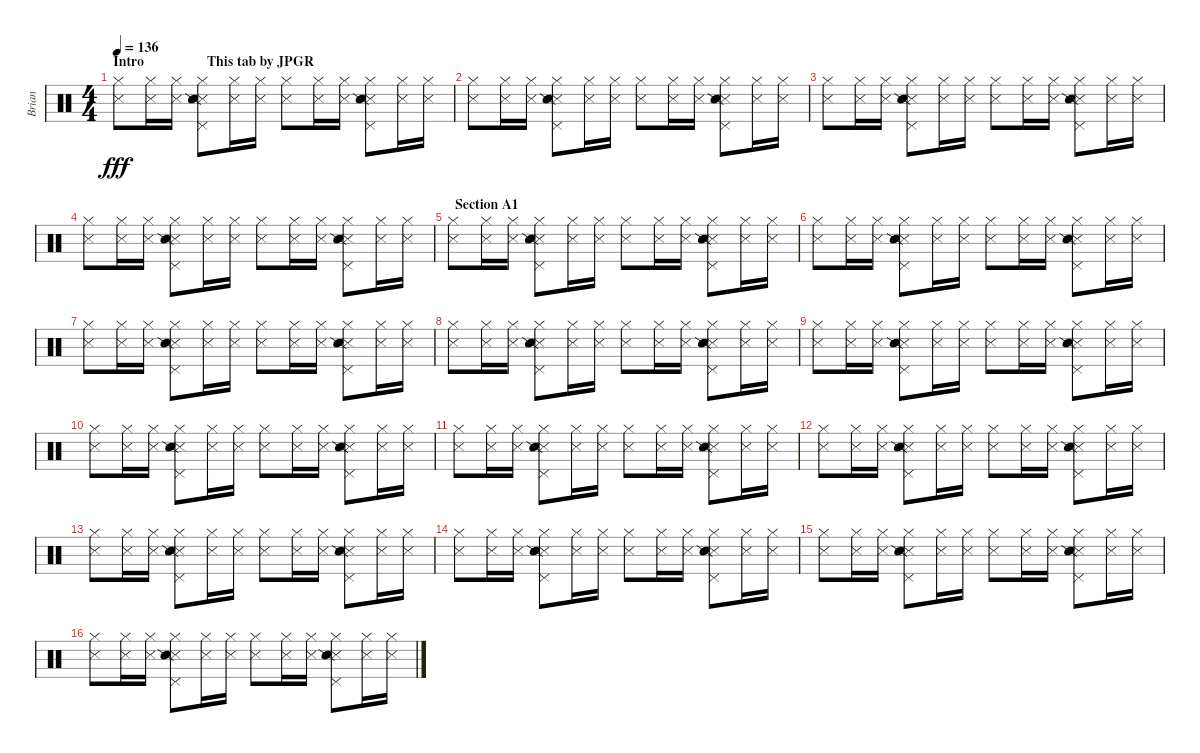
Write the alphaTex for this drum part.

\track ("Brian" "Brian") {instrument percussion}
\staff {score}
\articulation defaults
\ts (4 4)
\section ("" "Intro                  This tab by JPGR")
\tempo 136
\clef neutral
\ks c
("Hi-Hat (closed)" "Metronome (hit)").8{dy fff} ("Hi-Hat (closed)" "Metronome (hit)").16 ("Hi-Hat (closed)" "Metronome (hit)").16 ("Pedal Hi-Hat (hit)" "Snare (side stick) 3" "Hi-Hat (closed)" "Snare (side stick) 2").8 ("Hi-Hat (closed)" "Metronome (hit)").16 ("Hi-Hat (closed)" "Metronome (hit)").16 ("Hi-Hat (closed)" "Metronome (hit)").8 ("Hi-Hat (closed)" "Metronome (hit)").16 ("Hi-Hat (closed)" "Metronome (hit)").16 ("Pedal Hi-Hat (hit)" "Snare (side stick) 3" "Hi-Hat (closed)" "Snare (side stick) 2").8 ("Hi-Hat (closed)" "Metronome (hit)").16 ("Hi-Hat (closed)" "Metronome (hit)").16 |
("Hi-Hat (closed)" "Metronome (hit)").8 ("Hi-Hat (closed)" "Metronome (hit)").16 ("Hi-Hat (closed)" "Metronome (hit)").16 ("Pedal Hi-Hat (hit)" "Snare (side stick) 3" "Hi-Hat (closed)" "Snare (side stick) 2").8 ("Hi-Hat (closed)" "Metronome (hit)").16 ("Hi-Hat (closed)" "Metronome (hit)").16 ("Hi-Hat (closed)" "Metronome (hit)").8 ("Hi-Hat (closed)" "Metronome (hit)").16 ("Hi-Hat (closed)" "Metronome (hit)").16 ("Pedal Hi-Hat (hit)" "Snare (side stick) 3" "Hi-Hat (closed)" "Snare (side stick) 2").8 ("Hi-Hat (closed)" "Metronome (hit)").16 ("Hi-Hat (closed)" "Metronome (hit)").16 |
("Hi-Hat (closed)" "Metronome (hit)").8 ("Hi-Hat (closed)" "Metronome (hit)").16 ("Hi-Hat (closed)" "Metronome (hit)").16 ("Pedal Hi-Hat (hit)" "Snare (side stick) 3" "Hi-Hat (closed)" "Snare (side stick) 2").8 ("Hi-Hat (closed)" "Metronome (hit)").16 ("Hi-Hat (closed)" "Metronome (hit)").16 ("Hi-Hat (closed)" "Metronome (hit)").8 ("Hi-Hat (closed)" "Metronome (hit)").16 ("Hi-Hat (closed)" "Metronome (hit)").16 ("Pedal Hi-Hat (hit)" "Snare (side stick) 3" "Hi-Hat (closed)" "Snare (side stick) 2").8 ("Hi-Hat (closed)" "Metronome (hit)").16 ("Hi-Hat (closed)" "Metronome (hit)").16 |
("Hi-Hat (closed)" "Metronome (hit)").8 ("Hi-Hat (closed)" "Metronome (hit)").16 ("Hi-Hat (closed)" "Metronome (hit)").16 ("Pedal Hi-Hat (hit)" "Snare (side stick) 3" "Hi-Hat (closed)" "Snare (side stick) 2").8 ("Hi-Hat (closed)" "Metronome (hit)").16 ("Hi-Hat (closed)" "Metronome (hit)").16 ("Hi-Hat (closed)" "Metronome (hit)").8 ("Hi-Hat (closed)" "Metronome (hit)").16 ("Hi-Hat (closed)" "Metronome (hit)").16 ("Pedal Hi-Hat (hit)" "Snare (side stick) 3" "Hi-Hat (closed)" "Snare (side stick) 2").8 ("Hi-Hat (closed)" "Metronome (hit)").16 ("Hi-Hat (closed)" "Metronome (hit)").16 |
\section ("" "  Section A1")
("Hi-Hat (closed)" "Metronome (hit)").8 ("Hi-Hat (closed)" "Metronome (hit)").16 ("Hi-Hat (closed)" "Metronome (hit)").16 ("Pedal Hi-Hat (hit)" "Snare (side stick) 3" "Hi-Hat (closed)" "Snare (side stick) 2").8 ("Hi-Hat (closed)" "Metronome (hit)").16 ("Hi-Hat (closed)" "Metronome (hit)").16 ("Hi-Hat (closed)" "Metronome (hit)").8 ("Hi-Hat (closed)" "Metronome (hit)").16 ("Hi-Hat (closed)" "Metronome (hit)").16 ("Pedal Hi-Hat (hit)" "Snare (side stick) 3" "Hi-Hat (closed)" "Snare (side stick) 2").8 ("Hi-Hat (closed)" "Metronome (hit)").16 ("Hi-Hat (closed)" "Metronome (hit)").16 |
("Hi-Hat (closed)" "Metronome (hit)").8 ("Hi-Hat (closed)" "Metronome (hit)").16 ("Hi-Hat (closed)" "Metronome (hit)").16 ("Pedal Hi-Hat (hit)" "Snare (side stick) 3" "Hi-Hat (closed)" "Snare (side stick) 2").8 ("Hi-Hat (closed)" "Metronome (hit)").16 ("Hi-Hat (closed)" "Metronome (hit)").16 ("Hi-Hat (closed)" "Metronome (hit)").8 ("Hi-Hat (closed)" "Metronome (hit)").16 ("Hi-Hat (closed)" "Metronome (hit)").16 ("Pedal Hi-Hat (hit)" "Snare (side stick) 3" "Hi-Hat (closed)" "Snare (side stick) 2").8 ("Hi-Hat (closed)" "Metronome (hit)").16 ("Hi-Hat (closed)" "Metronome (hit)").16 |
("Hi-Hat (closed)" "Metronome (hit)").8 ("Hi-Hat (closed)" "Metronome (hit)").16 ("Hi-Hat (closed)" "Metronome (hit)").16 ("Pedal Hi-Hat (hit)" "Snare (side stick) 3" "Hi-Hat (closed)" "Snare (side stick) 2").8 ("Hi-Hat (closed)" "Metronome (hit)").16 ("Hi-Hat (closed)" "Metronome (hit)").16 ("Hi-Hat (closed)" "Metronome (hit)").8 ("Hi-Hat (closed)" "Metronome (hit)").16 ("Hi-Hat (closed)" "Metronome (hit)").16 ("Pedal Hi-Hat (hit)" "Snare (side stick) 3" "Hi-Hat (closed)" "Snare (side stick) 2").8 ("Hi-Hat (closed)" "Metronome (hit)").16 ("Hi-Hat (closed)" "Metronome (hit)").16 |
("Hi-Hat (closed)" "Metronome (hit)").8 ("Hi-Hat (closed)" "Metronome (hit)").16 ("Hi-Hat (closed)" "Metronome (hit)").16 ("Pedal Hi-Hat (hit)" "Snare (side stick) 3" "Hi-Hat (closed)" "Snare (side stick) 2").8 ("Hi-Hat (closed)" "Metronome (hit)").16 ("Hi-Hat (closed)" "Metronome (hit)").16 ("Hi-Hat (closed)" "Metronome (hit)").8 ("Hi-Hat (closed)" "Metronome (hit)").16 ("Hi-Hat (closed)" "Metronome (hit)").16 ("Pedal Hi-Hat (hit)" "Snare (side stick) 3" "Hi-Hat (closed)" "Snare (side stick) 2").8 ("Hi-Hat (closed)" "Metronome (hit)").16 ("Hi-Hat (closed)" "Metronome (hit)").16 |
("Hi-Hat (closed)" "Metronome (hit)").8 ("Hi-Hat (closed)" "Metronome (hit)").16 ("Hi-Hat (closed)" "Metronome (hit)").16 ("Pedal Hi-Hat (hit)" "Snare (side stick) 3" "Hi-Hat (closed)" "Snare (side stick) 2").8 ("Hi-Hat (closed)" "Metronome (hit)").16 ("Hi-Hat (closed)" "Metronome (hit)").16 ("Hi-Hat (closed)" "Metronome (hit)").8 ("Hi-Hat (closed)" "Metronome (hit)").16 ("Hi-Hat (closed)" "Metronome (hit)").16 ("Pedal Hi-Hat (hit)" "Snare (side stick) 3" "Hi-Hat (closed)" "Snare (side stick) 2").8 ("Hi-Hat (closed)" "Metronome (hit)").16 ("Hi-Hat (closed)" "Metronome (hit)").16 |
("Hi-Hat (closed)" "Metronome (hit)").8 ("Hi-Hat (closed)" "Metronome (hit)").16 ("Hi-Hat (closed)" "Metronome (hit)").16 ("Pedal Hi-Hat (hit)" "Snare (side stick) 3" "Hi-Hat (closed)" "Snare (side stick) 2").8 ("Hi-Hat (closed)" "Metronome (hit)").16 ("Hi-Hat (closed)" "Metronome (hit)").16 ("Hi-Hat (closed)" "Metronome (hit)").8 ("Hi-Hat (closed)" "Metronome (hit)").16 ("Hi-Hat (closed)" "Metronome (hit)").16 ("Pedal Hi-Hat (hit)" "Snare (side stick) 3" "Hi-Hat (closed)" "Snare (side stick) 2").8 ("Hi-Hat (closed)" "Metronome (hit)").16 ("Hi-Hat (closed)" "Metronome (hit)").16 |
("Hi-Hat (closed)" "Metronome (hit)").8 ("Hi-Hat (closed)" "Metronome (hit)").16 ("Hi-Hat (closed)" "Metronome (hit)").16 ("Pedal Hi-Hat (hit)" "Snare (side stick) 3" "Hi-Hat (closed)" "Snare (side stick) 2").8 ("Hi-Hat (closed)" "Metronome (hit)").16 ("Hi-Hat (closed)" "Metronome (hit)").16 ("Hi-Hat (closed)" "Metronome (hit)").8 ("Hi-Hat (closed)" "Metronome (hit)").16 ("Hi-Hat (closed)" "Metronome (hit)").16 ("Pedal Hi-Hat (hit)" "Snare (side stick) 3" "Hi-Hat (closed)" "Snare (side stick) 2").8 ("Hi-Hat (closed)" "Metronome (hit)").16 ("Hi-Hat (closed)" "Metronome (hit)").16 |
("Hi-Hat (closed)" "Metronome (hit)").8 ("Hi-Hat (closed)" "Metronome (hit)").16 ("Hi-Hat (closed)" "Metronome (hit)").16 ("Pedal Hi-Hat (hit)" "Snare (side stick) 3" "Hi-Hat (closed)" "Snare (side stick) 2").8 ("Hi-Hat (closed)" "Metronome (hit)").16 ("Hi-Hat (closed)" "Metronome (hit)").16 ("Hi-Hat (closed)" "Metronome (hit)").8 ("Hi-Hat (closed)" "Metronome (hit)").16 ("Hi-Hat (closed)" "Metronome (hit)").16 ("Pedal Hi-Hat (hit)" "Snare (side stick) 3" "Hi-Hat (closed)" "Snare (side stick) 2").8 ("Hi-Hat (closed)" "Metronome (hit)").16 ("Hi-Hat (closed)" "Metronome (hit)").16 |
("Hi-Hat (closed)" "Metronome (hit)").8 ("Hi-Hat (closed)" "Metronome (hit)").16 ("Hi-Hat (closed)" "Metronome (hit)").16 ("Pedal Hi-Hat (hit)" "Snare (side stick) 3" "Hi-Hat (closed)" "Snare (side stick) 2").8 ("Hi-Hat (closed)" "Metronome (hit)").16 ("Hi-Hat (closed)" "Metronome (hit)").16 ("Hi-Hat (closed)" "Metronome (hit)").8 ("Hi-Hat (closed)" "Metronome (hit)").16 ("Hi-Hat (closed)" "Metronome (hit)").16 ("Pedal Hi-Hat (hit)" "Snare (side stick) 3" "Hi-Hat (closed)" "Snare (side stick) 2").8 ("Hi-Hat (closed)" "Metronome (hit)").16 ("Hi-Hat (closed)" "Metronome (hit)").16 |
("Hi-Hat (closed)" "Metronome (hit)").8 ("Hi-Hat (closed)" "Metronome (hit)").16 ("Hi-Hat (closed)" "Metronome (hit)").16 ("Pedal Hi-Hat (hit)" "Snare (side stick) 3" "Hi-Hat (closed)" "Snare (side stick) 2").8 ("Hi-Hat (closed)" "Metronome (hit)").16 ("Hi-Hat (closed)" "Metronome (hit)").16 ("Hi-Hat (closed)" "Metronome (hit)").8 ("Hi-Hat (closed)" "Metronome (hit)").16 ("Hi-Hat (closed)" "Metronome (hit)").16 ("Pedal Hi-Hat (hit)" "Snare (side stick) 3" "Hi-Hat (closed)" "Snare (side stick) 2").8 ("Hi-Hat (closed)" "Metronome (hit)").16 ("Hi-Hat (closed)" "Metronome (hit)").16 |
("Hi-Hat (closed)" "Metronome (hit)").8 ("Hi-Hat (closed)" "Metronome (hit)").16 ("Hi-Hat (closed)" "Metronome (hit)").16 ("Pedal Hi-Hat (hit)" "Snare (side stick) 3" "Hi-Hat (closed)" "Snare (side stick) 2").8 ("Hi-Hat (closed)" "Metronome (hit)").16 ("Hi-Hat (closed)" "Metronome (hit)").16 ("Hi-Hat (closed)" "Metronome (hit)").8 ("Hi-Hat (closed)" "Metronome (hit)").16 ("Hi-Hat (closed)" "Metronome (hit)").16 ("Pedal Hi-Hat (hit)" "Snare (side stick) 3" "Hi-Hat (closed)" "Snare (side stick) 2").8 ("Hi-Hat (closed)" "Metronome (hit)").16 ("Hi-Hat (closed)" "Metronome (hit)").16 |
("Hi-Hat (closed)" "Metronome (hit)").8 ("Hi-Hat (closed)" "Metronome (hit)").16 ("Hi-Hat (closed)" "Metronome (hit)").16 ("Pedal Hi-Hat (hit)" "Snare (side stick) 3" "Hi-Hat (closed)" "Snare (side stick) 2").8 ("Hi-Hat (closed)" "Metronome (hit)").16 ("Hi-Hat (closed)" "Metronome (hit)").16 ("Hi-Hat (closed)" "Metronome (hit)").8 ("Hi-Hat (closed)" "Metronome (hit)").16 ("Hi-Hat (closed)" "Metronome (hit)").16 ("Pedal Hi-Hat (hit)" "Snare (side stick) 3" "Hi-Hat (closed)" "Snare (side stick) 2").8 ("Hi-Hat (closed)" "Metronome (hit)").16 ("Hi-Hat (closed)" "Metronome (hit)").16
